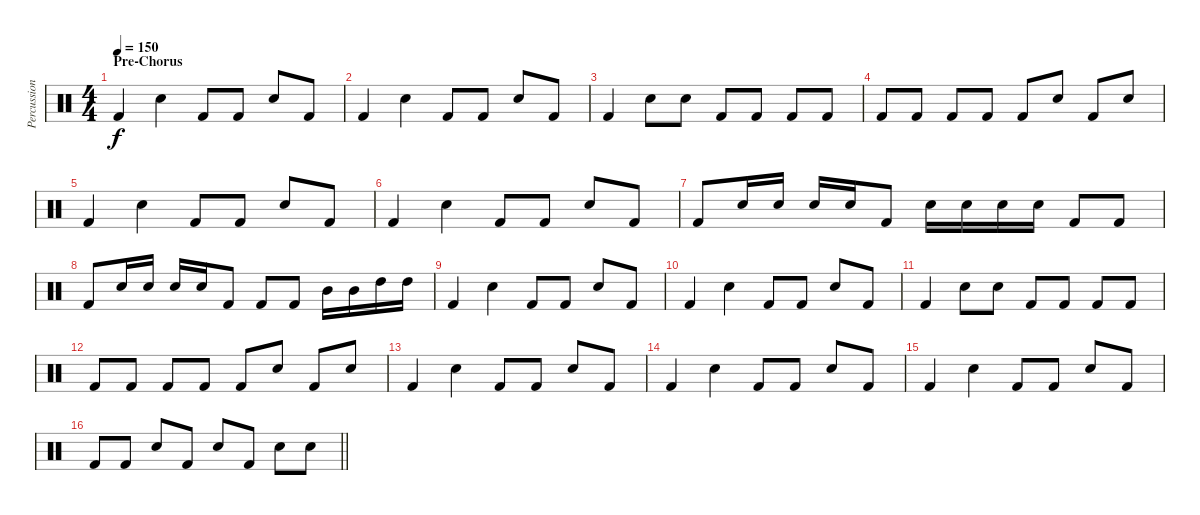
\track ("Percussion" "Percussion") {instrument percussion}
\staff {score}
\articulation defaults
\ts (4 4)
\section ("" "Pre-Chorus")
\tempo 150
\clef neutral
\ks c "Kick (hit) 2".4{dy f} "Snare (hit) 2".4 "Kick (hit) 2".8 "Kick (hit) 2".8 "Snare (hit) 2".8 "Kick (hit) 2".8
|
"Kick (hit) 2".4 "Snare (hit) 2".4 "Kick (hit) 2".8 "Kick (hit) 2".8 "Snare (hit) 2".8 "Kick (hit) 2".8 |
"Kick (hit) 2".4 "Snare (hit) 2".8 "Snare (hit) 2".8 "Kick (hit) 2".8 "Kick (hit) 2".8 "Kick (hit) 2".8 "Kick (hit) 2".8 |
"Kick (hit) 2".8 "Kick (hit) 2".8 "Kick (hit) 2".8 "Kick (hit) 2".8 "Kick (hit) 2".8 "Snare (hit) 2".8 "Kick (hit) 2".8 "Snare (hit) 2".8 |
"Kick (hit) 2".4 "Snare (hit) 2".4 "Kick (hit) 2".8 "Kick (hit) 2".8 "Snare (hit) 2".8 "Kick (hit) 2".8 |
"Kick (hit) 2".4 "Snare (hit) 2".4 "Kick (hit) 2".8 "Kick (hit) 2".8 "Snare (hit) 2".8 "Kick (hit) 2".8 |
"Kick (hit) 2".8 "Snare (hit) 2".16 "Snare (hit) 2".16 "Snare (hit) 2".16 "Snare (hit) 2".16 "Kick (hit) 2".8 "Snare (hit) 2".16 "Snare (hit) 2".16 "Snare (hit) 2".16 "Snare (hit) 2".16 "Kick (hit) 2".8 "Kick (hit) 2".8 |
"Kick (hit) 2".8 "Snare (hit) 2".16 "Snare (hit) 2".16 "Snare (hit) 2".16 "Snare (hit) 2".16 "Kick (hit) 2".8 "Kick (hit) 2".8 "Kick (hit) 2".8 "Mid Tom (hit)".16 "Mid Tom (hit)".16 "High Tom (hit)".16 "High Tom (hit)".16 |
"Kick (hit) 2".4 "Snare (hit) 2".4 "Kick (hit) 2".8 "Kick (hit) 2".8 "Snare (hit) 2".8 "Kick (hit) 2".8 |
"Kick (hit) 2".4 "Snare (hit) 2".4 "Kick (hit) 2".8 "Kick (hit) 2".8 "Snare (hit) 2".8 "Kick (hit) 2".8 |
"Kick (hit) 2".4 "Snare (hit) 2".8 "Snare (hit) 2".8 "Kick (hit) 2".8 "Kick (hit) 2".8 "Kick (hit) 2".8 "Kick (hit) 2".8 |
"Kick (hit) 2".8 "Kick (hit) 2".8 "Kick (hit) 2".8 "Kick (hit) 2".8 "Kick (hit) 2".8 "Snare (hit) 2".8 "Kick (hit) 2".8 "Snare (hit) 2".8 |
"Kick (hit) 2".4 "Snare (hit) 2".4 "Kick (hit) 2".8 "Kick (hit) 2".8 "Snare (hit) 2".8 "Kick (hit) 2".8 |
"Kick (hit) 2".4 "Snare (hit) 2".4 "Kick (hit) 2".8 "Kick (hit) 2".8 "Snare (hit) 2".8 "Kick (hit) 2".8 |
"Kick (hit) 2".4 "Snare (hit) 2".4 "Kick (hit) 2".8 "Kick (hit) 2".8 "Snare (hit) 2".8 "Kick (hit) 2".8 |
\barLineRight lightlight "Kick (hit) 2".8 "Kick (hit) 2".8 "Snare (hit) 2".8 "Kick (hit) 2".8 "Snare (hit) 2".8 "Kick (hit) 2".8 "Snare (hit) 2".8 "Snare (hit) 2".8
